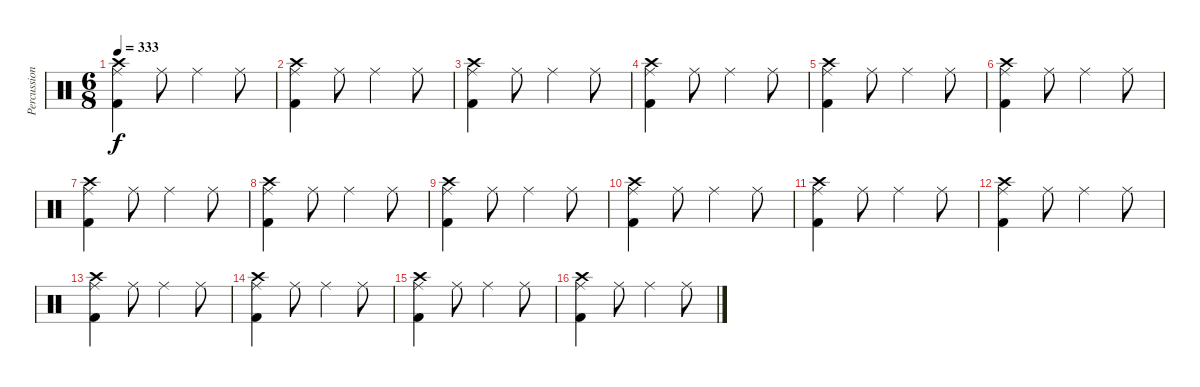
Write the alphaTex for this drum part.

\track ("Percussion" "Percussion") {instrument percussion}
\staff {score}
\articulation defaults
\ts (6 8)
\tempo 333
\clef neutral
\ks c
("Crash high (hit)" "Ride (middle)" "Kick (hit) 2").4{dy f} "Ride (middle)".8 "Ride (middle)".4 "Ride (middle)".8 |
("Crash high (hit)" "Ride (middle)" "Kick (hit) 2").4 "Ride (middle)".8 "Ride (middle)".4 "Ride (middle)".8 |
("Crash high (hit)" "Ride (middle)" "Kick (hit) 2").4 "Ride (middle)".8 "Ride (middle)".4 "Ride (middle)".8 |
("Crash high (hit)" "Ride (middle)" "Kick (hit) 2").4 "Ride (middle)".8 "Ride (middle)".4 "Ride (middle)".8 |
("Crash high (hit)" "Ride (middle)" "Kick (hit) 2").4 "Ride (middle)".8 "Ride (middle)".4 "Ride (middle)".8 |
("Crash high (hit)" "Ride (middle)" "Kick (hit) 2").4 "Ride (middle)".8 "Ride (middle)".4 "Ride (middle)".8 |
("Crash high (hit)" "Ride (middle)" "Kick (hit) 2").4 "Ride (middle)".8 "Ride (middle)".4 "Ride (middle)".8 |
("Crash high (hit)" "Ride (middle)" "Kick (hit) 2").4 "Ride (middle)".8 "Ride (middle)".4 "Ride (middle)".8 |
("Crash high (hit)" "Ride (middle)" "Kick (hit) 2").4 "Ride (middle)".8 "Ride (middle)".4 "Ride (middle)".8 |
("Crash high (hit)" "Ride (middle)" "Kick (hit) 2").4 "Ride (middle)".8 "Ride (middle)".4 "Ride (middle)".8 |
("Crash high (hit)" "Ride (middle)" "Kick (hit) 2").4 "Ride (middle)".8 "Ride (middle)".4 "Ride (middle)".8 |
("Crash high (hit)" "Ride (middle)" "Kick (hit) 2").4 "Ride (middle)".8 "Ride (middle)".4 "Ride (middle)".8 |
("Crash high (hit)" "Ride (middle)" "Kick (hit) 2").4 "Ride (middle)".8 "Ride (middle)".4 "Ride (middle)".8 |
("Crash high (hit)" "Ride (middle)" "Kick (hit) 2").4 "Ride (middle)".8 "Ride (middle)".4 "Ride (middle)".8 |
("Crash high (hit)" "Ride (middle)" "Kick (hit) 2").4 "Ride (middle)".8 "Ride (middle)".4 "Ride (middle)".8 |
("Crash high (hit)" "Ride (middle)" "Kick (hit) 2").4 "Ride (middle)".8 "Ride (middle)".4 "Ride (middle)".8
